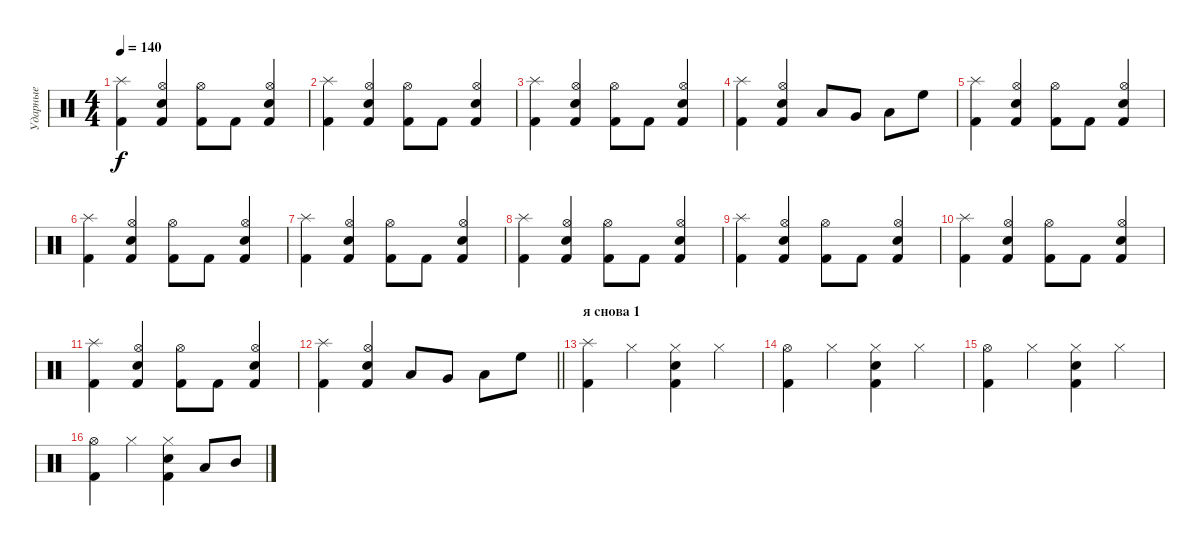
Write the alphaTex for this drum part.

\track ("Ударные" "Ударные") {instrument percussion}
\staff {score}
\articulation defaults
\ts (4 4)
\tempo 140
\clef neutral
\ks c
("Splash (hit)" "Kick (hit) 2").4{dy f} ("Hi-Hat (open)" "Electric Snare (hit)" "Kick (hit) 2").4 ("Hi-Hat (open)" "Kick (hit) 2").8 "Kick (hit) 2".8 ("Hi-Hat (open)" "Electric Snare (hit)" "Kick (hit) 2").4 |
("Splash (hit)" "Kick (hit) 2").4 ("Hi-Hat (open)" "Electric Snare (hit)" "Kick (hit) 2").4 ("Hi-Hat (open)" "Kick (hit) 2").8 "Kick (hit) 2".8 ("Hi-Hat (open)" "Electric Snare (hit)" "Kick (hit) 2").4 |
("Splash (hit)" "Kick (hit) 2").4 ("Hi-Hat (open)" "Electric Snare (hit)" "Kick (hit) 2").4 ("Hi-Hat (open)" "Kick (hit) 2").8 "Kick (hit) 2".8 ("Hi-Hat (open)" "Electric Snare (hit)" "Kick (hit) 2").4 |
("Splash (hit)" "Kick (hit) 2").4 ("Hi-Hat (open)" "Electric Snare (hit)" "Kick (hit) 2").4 "Low Floor Tom (hit)".8 "Very Low Tom (hit)".8 "Low Tom (hit)".8 "High Floor Tom (hit)".8 |
("Splash (hit)" "Kick (hit) 2").4 ("Hi-Hat (open)" "Electric Snare (hit)" "Kick (hit) 2").4 ("Hi-Hat (open)" "Kick (hit) 2").8 "Kick (hit) 2".8 ("Hi-Hat (open)" "Electric Snare (hit)" "Kick (hit) 2").4 |
("Splash (hit)" "Kick (hit) 2").4 ("Hi-Hat (open)" "Electric Snare (hit)" "Kick (hit) 2").4 ("Hi-Hat (open)" "Kick (hit) 2").8 "Kick (hit) 2".8 ("Hi-Hat (open)" "Electric Snare (hit)" "Kick (hit) 2").4 |
("Splash (hit)" "Kick (hit) 2").4 ("Hi-Hat (open)" "Electric Snare (hit)" "Kick (hit) 2").4 ("Hi-Hat (open)" "Kick (hit) 2").8 "Kick (hit) 2".8 ("Hi-Hat (open)" "Electric Snare (hit)" "Kick (hit) 2").4 |
("Splash (hit)" "Kick (hit) 2").4 ("Hi-Hat (open)" "Electric Snare (hit)" "Kick (hit) 2").4 ("Hi-Hat (open)" "Kick (hit) 2").8 "Kick (hit) 2".8 ("Hi-Hat (open)" "Electric Snare (hit)" "Kick (hit) 2").4 |
("Splash (hit)" "Kick (hit) 2").4 ("Hi-Hat (open)" "Electric Snare (hit)" "Kick (hit) 2").4 ("Hi-Hat (open)" "Kick (hit) 2").8 "Kick (hit) 2".8 ("Hi-Hat (open)" "Electric Snare (hit)" "Kick (hit) 2").4 |
("Splash (hit)" "Kick (hit) 2").4 ("Hi-Hat (open)" "Electric Snare (hit)" "Kick (hit) 2").4 ("Hi-Hat (open)" "Kick (hit) 2").8 "Kick (hit) 2".8 ("Hi-Hat (open)" "Electric Snare (hit)" "Kick (hit) 2").4 |
("Splash (hit)" "Kick (hit) 2").4 ("Hi-Hat (open)" "Electric Snare (hit)" "Kick (hit) 2").4 ("Hi-Hat (open)" "Kick (hit) 2").8 "Kick (hit) 2".8 ("Hi-Hat (open)" "Electric Snare (hit)" "Kick (hit) 2").4 |
\barLineRight lightlight
("Splash (hit)" "Kick (hit) 2").4 ("Hi-Hat (open)" "Electric Snare (hit)" "Kick (hit) 2").4 "Low Floor Tom (hit)".8 "Very Low Tom (hit)".8 "Low Tom (hit)".8 "High Floor Tom (hit)".8 |
\section ("" "я снова 1")
("Splash (hit)" "Kick (hit) 2").4 "Hi-Hat (closed)".4 ("Hi-Hat (closed)" "Electric Snare (hit)" "Kick (hit) 2").4 "Hi-Hat (closed)".4 |
("Hi-Hat (open)" "Kick (hit) 2").4 "Hi-Hat (closed)".4 ("Hi-Hat (closed)" "Electric Snare (hit)" "Kick (hit) 2").4 "Hi-Hat (closed)".4 |
("Hi-Hat (open)" "Kick (hit) 2").4 "Hi-Hat (closed)".4 ("Hi-Hat (closed)" "Electric Snare (hit)" "Kick (hit) 2").4 "Hi-Hat (closed)".4 |
("Hi-Hat (open)" "Kick (hit) 2").4 "Hi-Hat (closed)".4 ("Hi-Hat (closed)" "Electric Snare (hit)" "Kick (hit) 2").4 "Low Tom (hit)".8 "Mid Tom (hit)".8
